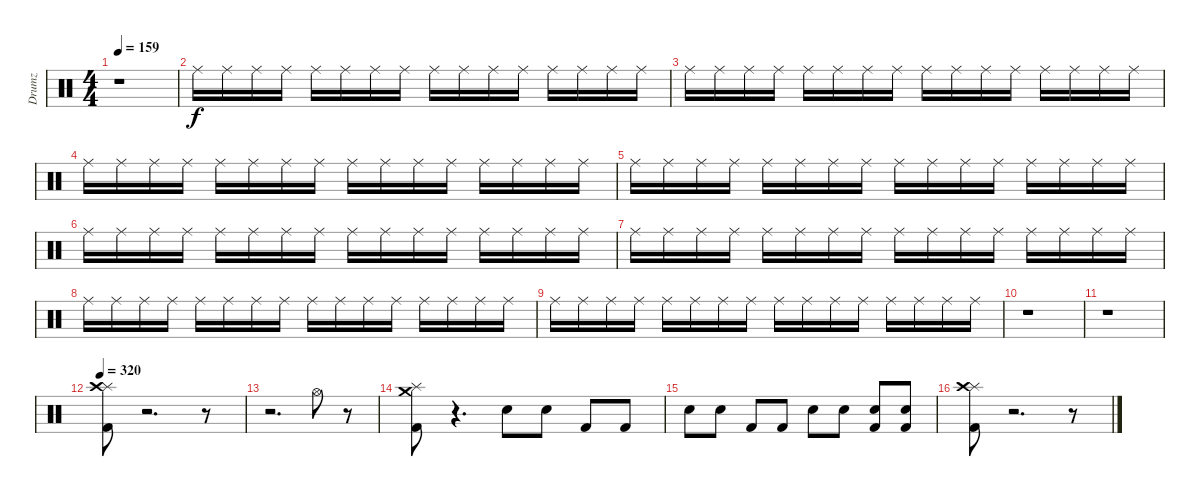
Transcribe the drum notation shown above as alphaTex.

\track ("Drumz" "Drumz") {instrument percussion}
\staff {score}
\articulation defaults
\ts (4 4)
\tempo 159
\clef neutral
\ks c
r.1{dy f} |
"Ride (middle)".16 "Ride (middle)".16 "Ride (middle)".16 "Ride (middle)".16 "Ride (middle)".16 "Ride (middle)".16 "Ride (middle)".16 "Ride (middle)".16 "Ride (middle)".16 "Ride (middle)".16 "Ride (middle)".16 "Ride (middle)".16 "Ride (middle)".16 "Ride (middle)".16 "Ride (middle)".16 "Ride (middle)".16 |
"Ride (middle)".16 "Ride (middle)".16 "Ride (middle)".16 "Ride (middle)".16 "Ride (middle)".16 "Ride (middle)".16 "Ride (middle)".16 "Ride (middle)".16 "Ride (middle)".16 "Ride (middle)".16 "Ride (middle)".16 "Ride (middle)".16 "Ride (middle)".16 "Ride (middle)".16 "Ride (middle)".16 "Ride (middle)".16 |
"Ride (middle)".16 "Ride (middle)".16 "Ride (middle)".16 "Ride (middle)".16 "Ride (middle)".16 "Ride (middle)".16 "Ride (middle)".16 "Ride (middle)".16 "Ride (middle)".16 "Ride (middle)".16 "Ride (middle)".16 "Ride (middle)".16 "Ride (middle)".16 "Ride (middle)".16 "Ride (middle)".16 "Ride (middle)".16 |
"Ride (middle)".16 "Ride (middle)".16 "Ride (middle)".16 "Ride (middle)".16 "Ride (middle)".16 "Ride (middle)".16 "Ride (middle)".16 "Ride (middle)".16 "Ride (middle)".16 "Ride (middle)".16 "Ride (middle)".16 "Ride (middle)".16 "Ride (middle)".16 "Ride (middle)".16 "Ride (middle)".16 "Ride (middle)".16 |
"Ride (middle)".16 "Ride (middle)".16 "Ride (middle)".16 "Ride (middle)".16 "Ride (middle)".16 "Ride (middle)".16 "Ride (middle)".16 "Ride (middle)".16 "Ride (middle)".16 "Ride (middle)".16 "Ride (middle)".16 "Ride (middle)".16 "Ride (middle)".16 "Ride (middle)".16 "Ride (middle)".16 "Ride (middle)".16 |
"Ride (middle)".16 "Ride (middle)".16 "Ride (middle)".16 "Ride (middle)".16 "Ride (middle)".16 "Ride (middle)".16 "Ride (middle)".16 "Ride (middle)".16 "Ride (middle)".16 "Ride (middle)".16 "Ride (middle)".16 "Ride (middle)".16 "Ride (middle)".16 "Ride (middle)".16 "Ride (middle)".16 "Ride (middle)".16 |
"Ride (middle)".16 "Ride (middle)".16 "Ride (middle)".16 "Ride (middle)".16 "Ride (middle)".16 "Ride (middle)".16 "Ride (middle)".16 "Ride (middle)".16 "Ride (middle)".16 "Ride (middle)".16 "Ride (middle)".16 "Ride (middle)".16 "Ride (middle)".16 "Ride (middle)".16 "Ride (middle)".16 "Ride (middle)".16 |
"Ride (middle)".16 "Ride (middle)".16 "Ride (middle)".16 "Ride (middle)".16 "Ride (middle)".16 "Ride (middle)".16 "Ride (middle)".16 "Ride (middle)".16 "Ride (middle)".16 "Ride (middle)".16 "Ride (middle)".16 "Ride (middle)".16 "Ride (middle)".16 "Ride (middle)".16 "Ride (middle)".16 "Ride (middle)".16 |
r.1 |
r.1 |
\tempo 320
("Kick (hit) 2" "Splash (hit)" "Crash high (hit)").8{volume 12} r.2{d} r.8 |
r.2{d} "Hi-Hat (open)".8 r.8 |
("Kick (hit) 2" "Splash (hit)" "Crash medium (hit)").8 r.4{d} "Snare (hit) 2".8 "Snare (hit) 2".8 "Kick (hit) 2".8 "Kick (hit) 2".8 |
"Snare (hit) 2".8 "Snare (hit) 2".8 "Kick (hit) 2".8 "Kick (hit) 2".8 "Snare (hit) 2".8 "Snare (hit) 2".8 ("Snare (hit) 2" "Kick (hit) 2").8 ("Snare (hit) 2" "Kick (hit) 2").8 |
("Kick (hit) 2" "Splash (hit)" "Crash high (hit)").8 r.2{d} r.8
